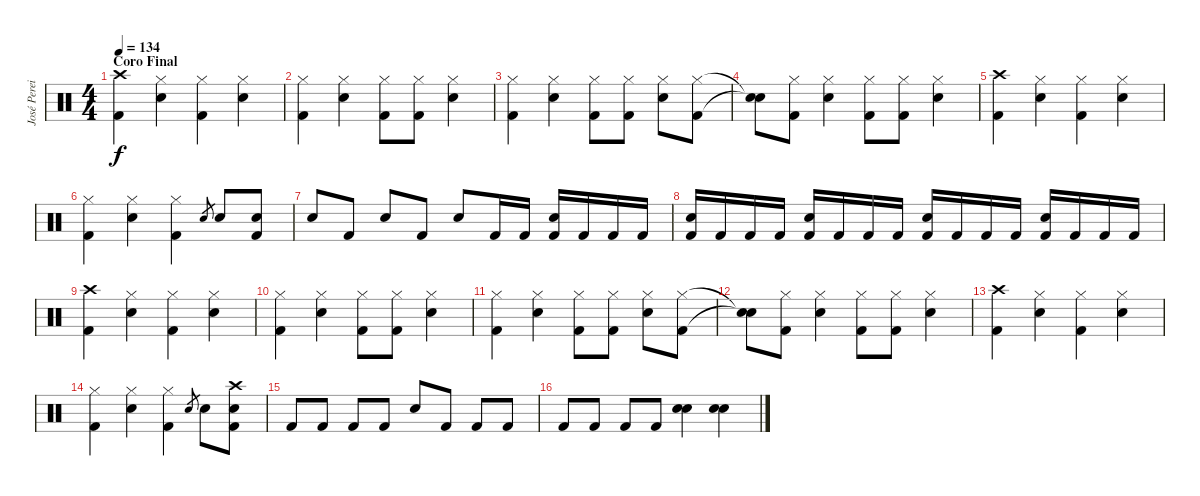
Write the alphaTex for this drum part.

\track ("José Pereira" "José Perei") {instrument percussion}
\staff {score}
\articulation defaults
\ts (4 4)
\section ("" "Coro Final")
\tempo 134
\clef neutral
\ks c
("Crash high (hit)" "Kick (hit) 2").4{dy f} ("Hi-Hat (closed)" "Snare (hit) 2").4 ("Hi-Hat (closed)" "Kick (hit) 2").4 ("Hi-Hat (closed)" "Snare (hit) 2").4 |
("Hi-Hat (closed)" "Kick (hit) 2").4 ("Hi-Hat (closed)" "Snare (hit) 2").4 ("Hi-Hat (closed)" "Kick (hit) 2").8 ("Hi-Hat (closed)" "Kick (hit) 2").8 ("Hi-Hat (closed)" "Snare (hit) 2").4 |
("Hi-Hat (closed)" "Kick (hit) 2").4 ("Hi-Hat (closed)" "Snare (hit) 2").4 ("Hi-Hat (closed)" "Kick (hit) 2").8 ("Hi-Hat (closed)" "Kick (hit) 2").8 ("Hi-Hat (closed)" "Snare (hit) 2").8 ("Hi-Hat (closed)" "Kick (hit) 2").8 |
("Snare (hit)"{t} "Snare (hit)"{t}).8 ("Hi-Hat (closed)" "Kick (hit) 2").8 ("Hi-Hat (closed)" "Snare (hit) 2").4 ("Hi-Hat (closed)" "Kick (hit) 2").8 ("Hi-Hat (closed)" "Kick (hit) 2").8 ("Hi-Hat (closed)" "Snare (hit) 2").4 |
("Crash high (hit)" "Kick (hit) 2").4 ("Hi-Hat (closed)" "Snare (hit) 2").4 ("Hi-Hat (closed)" "Kick (hit) 2").4 ("Hi-Hat (closed)" "Snare (hit) 2").4 |
("Hi-Hat (closed)" "Kick (hit) 2").4 ("Hi-Hat (closed)" "Snare (hit) 2").4 ("Hi-Hat (closed)" "Kick (hit) 2").4 "Snare (hit) 2".8{gr} "Snare (hit) 2".8 ("Electric Snare (hit)" "Kick (hit) 2").8 |
"Snare (hit) 2".8 "Kick (hit) 2".8 "Snare (hit) 2".8 "Kick (hit) 2".8 "Snare (hit) 2".8 "Kick (hit) 2".16 "Kick (hit) 2".16 ("Snare (hit) 2" "Kick (hit) 2").16 "Kick (hit) 2".16 "Kick (hit) 2".16 "Kick (hit) 2".16 |
("Snare (hit) 2" "Kick (hit) 2").16 "Kick (hit) 2".16 "Kick (hit) 2".16 "Kick (hit) 2".16 ("Snare (hit) 2" "Kick (hit) 2").16 "Kick (hit) 2".16 "Kick (hit) 2".16 "Kick (hit) 2".16 ("Snare (hit) 2" "Kick (hit) 2").16 "Kick (hit) 2".16 "Kick (hit) 2".16 "Kick (hit) 2".16 ("Snare (hit) 2" "Kick (hit) 2").16 "Kick (hit) 2".16 "Kick (hit) 2".16 "Kick (hit) 2".16 |
("Crash high (hit)" "Kick (hit) 2").4 ("Hi-Hat (closed)" "Snare (hit) 2").4 ("Hi-Hat (closed)" "Kick (hit) 2").4 ("Hi-Hat (closed)" "Snare (hit) 2").4 |
("Hi-Hat (closed)" "Kick (hit) 2").4 ("Hi-Hat (closed)" "Snare (hit) 2").4 ("Hi-Hat (closed)" "Kick (hit) 2").8 ("Hi-Hat (closed)" "Kick (hit) 2").8 ("Hi-Hat (closed)" "Snare (hit) 2").4 |
("Hi-Hat (closed)" "Kick (hit) 2").4 ("Hi-Hat (closed)" "Snare (hit) 2").4 ("Hi-Hat (closed)" "Kick (hit) 2").8 ("Hi-Hat (closed)" "Kick (hit) 2").8 ("Hi-Hat (closed)" "Snare (hit) 2").8 ("Hi-Hat (closed)" "Kick (hit) 2").8 |
("Snare (hit)"{t} "Snare (hit)"{t}).8 ("Hi-Hat (closed)" "Kick (hit) 2").8 ("Hi-Hat (closed)" "Snare (hit) 2").4 ("Hi-Hat (closed)" "Kick (hit) 2").8 ("Hi-Hat (closed)" "Kick (hit) 2").8 ("Hi-Hat (closed)" "Snare (hit) 2").4 |
("Crash high (hit)" "Kick (hit) 2").4 ("Hi-Hat (closed)" "Snare (hit) 2").4 ("Hi-Hat (closed)" "Kick (hit) 2").4 ("Hi-Hat (closed)" "Snare (hit) 2").4 |
("Hi-Hat (closed)" "Kick (hit) 2").4 ("Hi-Hat (closed)" "Snare (hit) 2").4 ("Hi-Hat (closed)" "Kick (hit) 2").4 "Snare (hit) 2".8{gr} "Snare (hit) 2".8 ("Crash high (hit)" "Electric Snare (hit)" "Kick (hit) 2").8 |
"Kick (hit) 2".8 "Kick (hit) 2".8 "Kick (hit) 2".8 "Kick (hit) 2".8 "Snare (hit) 2".8 "Kick (hit) 2".8 "Kick (hit) 2".8 "Kick (hit) 2".8 |
"Kick (hit) 2".8 "Kick (hit) 2".8 "Kick (hit) 2".8 "Kick (hit) 2".8 ("Snare (hit) 2" "Snare (hit) 2").4 ("Snare (hit) 2" "Snare (hit) 2").4
